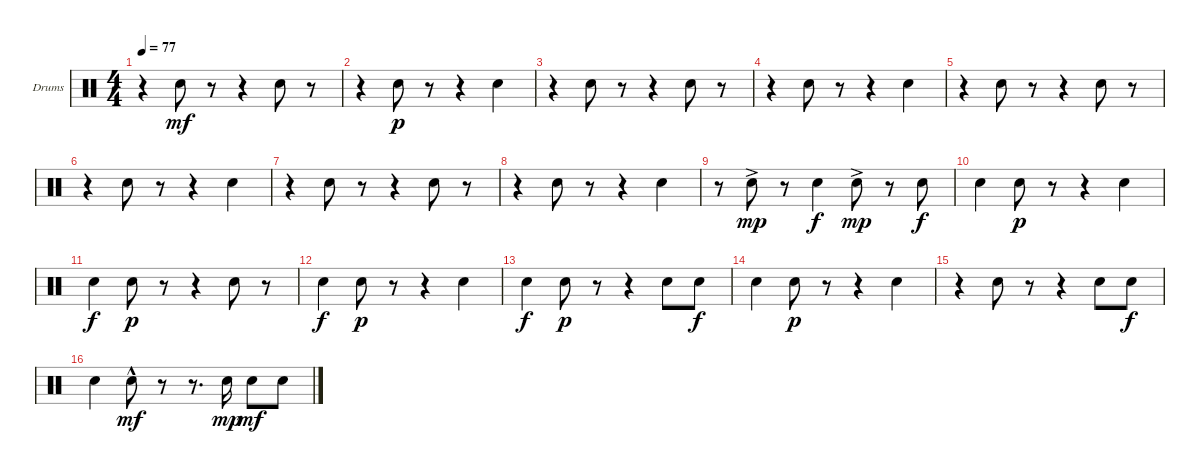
\bracketExtendMode groupsimilarinstruments
\firstSystemTrackNameOrientation horizontal
\otherSystemsTrackNameOrientation horizontal
\track ("Drumkit Гурьянов" "Drums") {instrument percussion}
\staff {score}
\articulation defaults
\ts (4 4)
\tempo 77
\clef neutral
\scale
0.333333
\ks c
r.4{dy mf} "Snare (hit) 2".8 r.8 r.4 "Snare (hit) 2".8 r.8 |
\scale
0.333333 r.4 "Snare (hit) 2".8{dy p} r.8 r.4 "Snare (hit) 2".4 |
\scale
0.333333 r.4 "Snare (hit) 2".8 r.8 r.4 "Snare (hit) 2".8 r.8 |
\scale
0.333333 r.4 "Snare (hit) 2".8 r.8 r.4 "Snare (hit) 2".4 |
\scale
0.333333 r.4 "Snare (hit) 2".8 r.8 r.4 "Snare (hit) 2".8 r.8 |
\scale
0.333333 r.4 "Snare (hit) 2".8 r.8 r.4 "Snare (hit) 2".4 |
\scale
0.333333 r.4 "Snare (hit) 2".8 r.8 r.4 "Snare (hit) 2".8 r.8 |
\scale
0.333333 r.4 "Snare (hit) 2".8 r.8 r.4 "Snare (hit) 2".4 |
\scale
0.333333 r.8 "Snare (hit) 2"{ac}.8{dy mp} r.8 "Snare (hit) 2".4{dy f} "Snare (hit) 2"{ac}.8{dy mp} r.8 "Snare (hit) 2".8{dy f} |
\scale
0.333333 "Snare (hit) 2".4 "Snare (hit) 2".8{dy p} r.8 r.4 "Snare (hit) 2".4 |
\scale
0.333333 "Snare (hit) 2".4{dy f} "Snare (hit) 2".8{dy p} r.8 r.4 "Snare (hit) 2".8 r.8 |
\scale
0.333333 "Snare (hit) 2".4{dy f} "Snare (hit) 2".8{dy p} r.8 r.4 "Snare (hit) 2".4 |
\scale
0.333333 "Snare (hit) 2".4{dy f} "Snare (hit) 2".8{dy p} r.8 r.4 "Snare (hit) 2".8 "Snare (hit) 2".8{dy f} |
\scale
0.333333 "Snare (hit) 2".4 "Snare (hit) 2".8{dy p} r.8 r.4 "Snare (hit) 2".4 |
\scale
0.333333 r.4 "Snare (hit) 2".8 r.8 r.4 "Snare (hit) 2".8 "Snare (hit) 2".8{dy f} |
\scale
0.333333 "Snare (hit) 2".4 "Snare (hit) 2"{hac}.8{dy mf} r.8 r.8{d} "Snare (hit) 2".16{dy mp} "Snare (hit) 2".8{dy mf} "Snare (hit) 2".8
